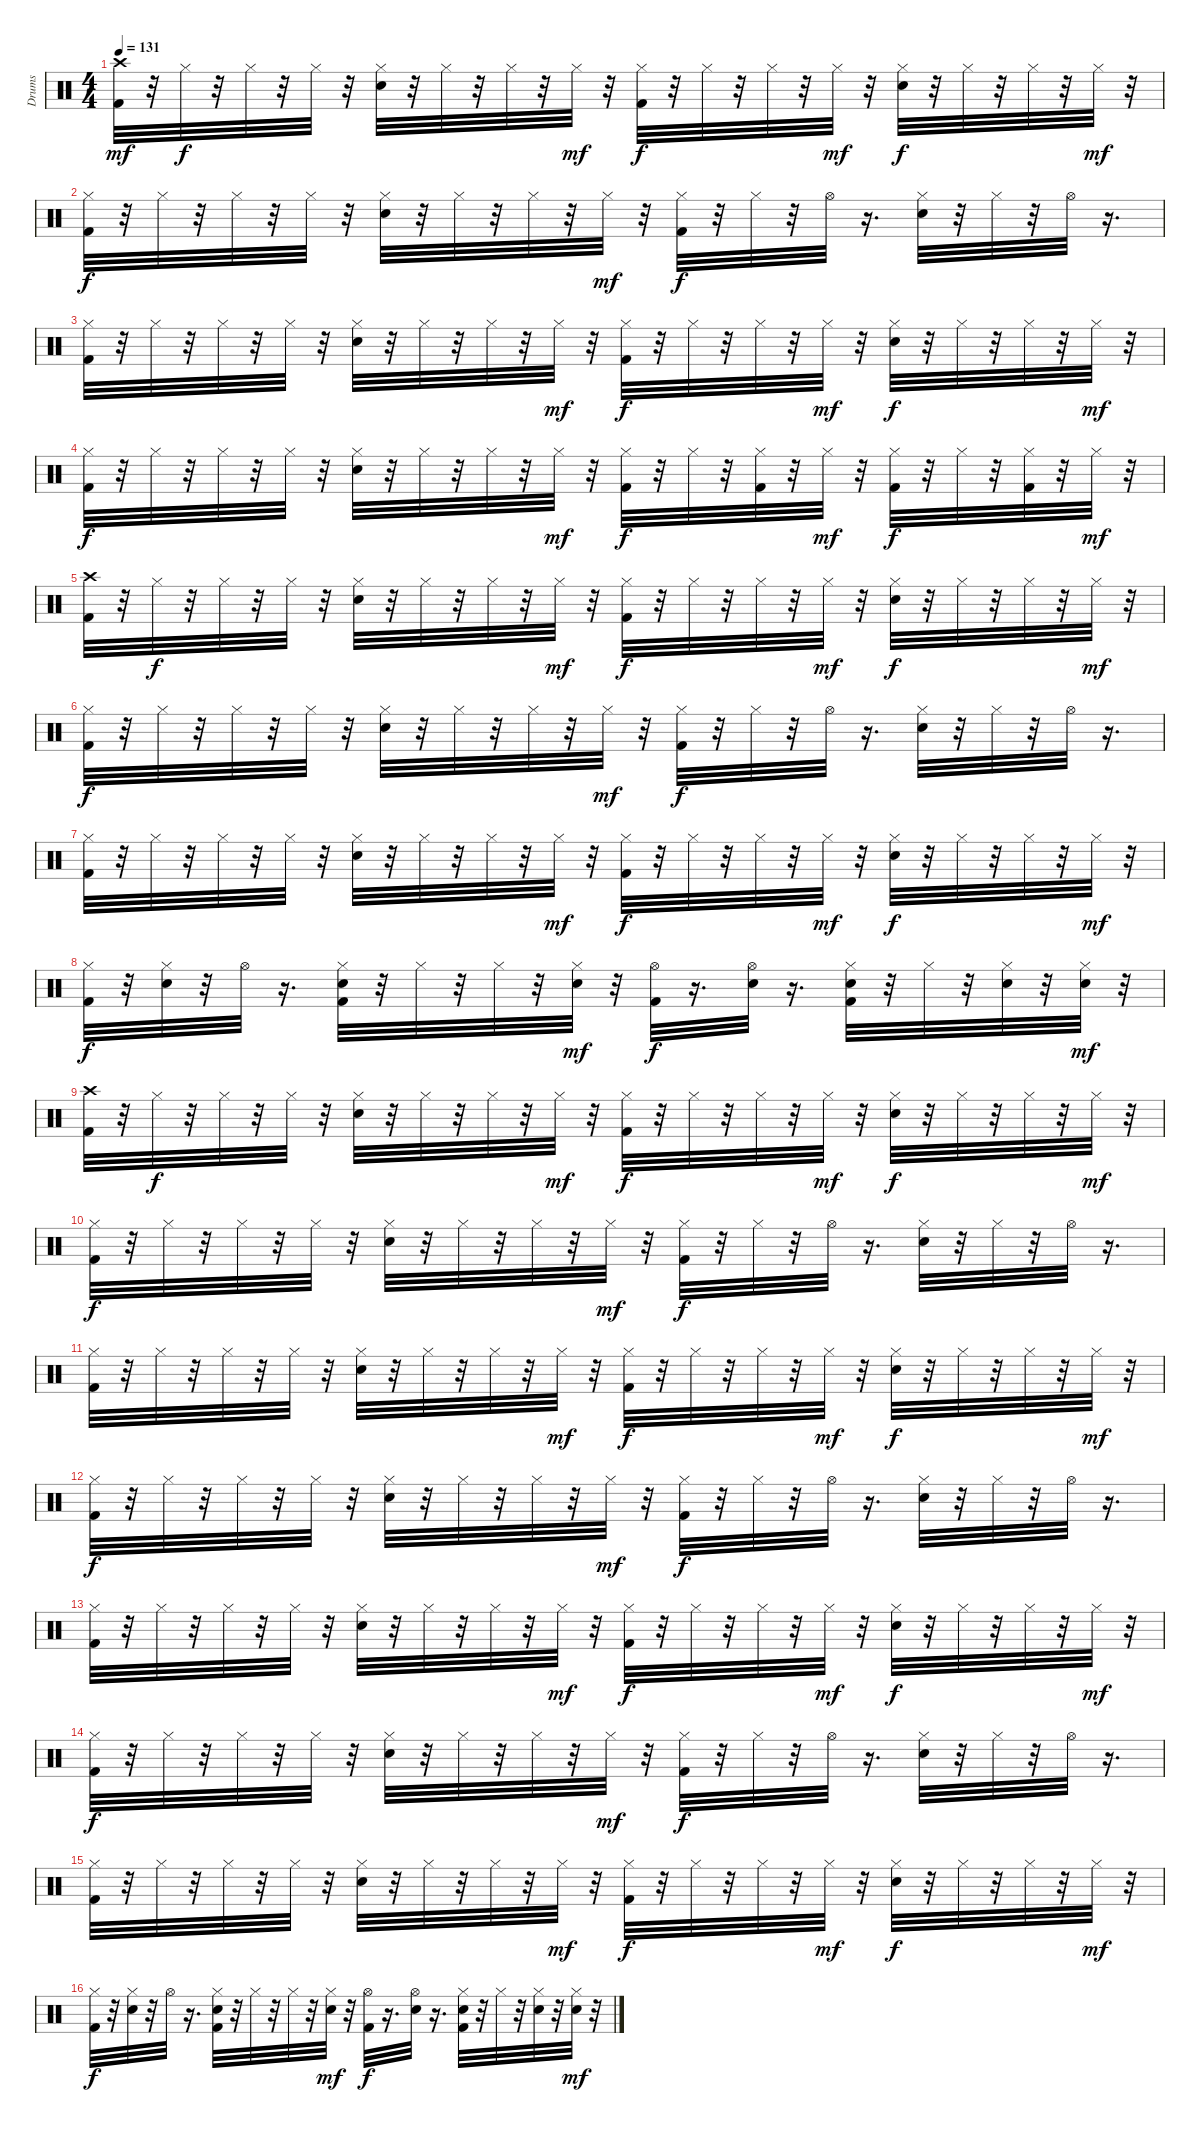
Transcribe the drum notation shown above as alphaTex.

\track ("Drums" "Drums") {instrument percussion}
\staff {score}
\articulation defaults
\ts (4 4)
\tempo 131
\clef neutral
\ks c
("Crash high (hit)" "Kick (hit) 2").32{dy mf} r.32 "Hi-Hat (closed)".32{dy f} r.32 "Hi-Hat (closed)".32 r.32 "Hi-Hat (closed)".32 r.32 ("Hi-Hat (closed)" "Snare (hit) 2").32 r.32 "Hi-Hat (closed)".32 r.32 "Hi-Hat (closed)".32 r.32 "Hi-Hat (closed)".32{dy mf} r.32 ("Hi-Hat (closed)" "Kick (hit) 2").32{dy f} r.32 "Hi-Hat (closed)".32 r.32 "Hi-Hat (closed)".32 r.32 "Hi-Hat (closed)".32{dy mf} r.32 ("Hi-Hat (closed)" "Snare (hit) 2").32{dy f} r.32 "Hi-Hat (closed)".32 r.32 "Hi-Hat (closed)".32 r.32 "Hi-Hat (closed)".32{dy mf} r.32 |
("Kick (hit) 2" "Hi-Hat (closed)").32{dy f} r.32 "Hi-Hat (closed)".32 r.32 "Hi-Hat (closed)".32 r.32 "Hi-Hat (closed)".32 r.32 ("Snare (hit) 2" "Hi-Hat (closed)").32 r.32 "Hi-Hat (closed)".32 r.32 "Hi-Hat (closed)".32 r.32 "Hi-Hat (closed)".32{dy mf} r.32 ("Kick (hit) 2" "Hi-Hat (closed)").32{dy f} r.32 "Hi-Hat (closed)".32 r.32 "Hi-Hat (open)".32 r.16{d} ("Snare (hit) 2" "Hi-Hat (closed)").32 r.32 "Hi-Hat (closed)".32 r.32 "Hi-Hat (open)".32 r.16{d} |
("Kick (hit) 2" "Hi-Hat (closed)").32 r.32 "Hi-Hat (closed)".32 r.32 "Hi-Hat (closed)".32 r.32 "Hi-Hat (closed)".32 r.32 ("Hi-Hat (closed)" "Snare (hit) 2").32 r.32 "Hi-Hat (closed)".32 r.32 "Hi-Hat (closed)".32 r.32 "Hi-Hat (closed)".32{dy mf} r.32 ("Hi-Hat (closed)" "Kick (hit) 2").32{dy f} r.32 "Hi-Hat (closed)".32 r.32 "Hi-Hat (closed)".32 r.32 "Hi-Hat (closed)".32{dy mf} r.32 ("Hi-Hat (closed)" "Snare (hit) 2").32{dy f} r.32 "Hi-Hat (closed)".32 r.32 "Hi-Hat (closed)".32 r.32 "Hi-Hat (closed)".32{dy mf} r.32 |
("Kick (hit) 2" "Hi-Hat (closed)").32{dy f} r.32 "Hi-Hat (closed)".32 r.32 "Hi-Hat (closed)".32 r.32 "Hi-Hat (closed)".32 r.32 ("Hi-Hat (closed)" "Snare (hit) 2").32 r.32 "Hi-Hat (closed)".32 r.32 "Hi-Hat (closed)".32 r.32 "Hi-Hat (closed)".32{dy mf} r.32 ("Hi-Hat (closed)" "Kick (hit) 2").32{dy f} r.32 "Hi-Hat (closed)".32 r.32 ("Kick (hit) 2" "Hi-Hat (closed)").32 r.32 "Hi-Hat (closed)".32{dy mf} r.32 ("Hi-Hat (closed)" "Kick (hit) 2").32{dy f} r.32 "Hi-Hat (closed)".32 r.32 ("Kick (hit) 2" "Hi-Hat (closed)").32 r.32 "Hi-Hat (closed)".32{dy mf} r.32 |
("Crash high (hit)" "Kick (hit) 2").32 r.32 "Hi-Hat (closed)".32{dy f} r.32 "Hi-Hat (closed)".32 r.32 "Hi-Hat (closed)".32 r.32 ("Hi-Hat (closed)" "Snare (hit) 2").32 r.32 "Hi-Hat (closed)".32 r.32 "Hi-Hat (closed)".32 r.32 "Hi-Hat (closed)".32{dy mf} r.32 ("Hi-Hat (closed)" "Kick (hit) 2").32{dy f} r.32 "Hi-Hat (closed)".32 r.32 "Hi-Hat (closed)".32 r.32 "Hi-Hat (closed)".32{dy mf} r.32 ("Hi-Hat (closed)" "Snare (hit) 2").32{dy f} r.32 "Hi-Hat (closed)".32 r.32 "Hi-Hat (closed)".32 r.32 "Hi-Hat (closed)".32{dy mf} r.32 |
("Kick (hit) 2" "Hi-Hat (closed)").32{dy f} r.32 "Hi-Hat (closed)".32 r.32 "Hi-Hat (closed)".32 r.32 "Hi-Hat (closed)".32 r.32 ("Snare (hit) 2" "Hi-Hat (closed)").32 r.32 "Hi-Hat (closed)".32 r.32 "Hi-Hat (closed)".32 r.32 "Hi-Hat (closed)".32{dy mf} r.32 ("Kick (hit) 2" "Hi-Hat (closed)").32{dy f} r.32 "Hi-Hat (closed)".32 r.32 "Hi-Hat (open)".32 r.16{d} ("Snare (hit) 2" "Hi-Hat (closed)").32 r.32 "Hi-Hat (closed)".32 r.32 "Hi-Hat (open)".32 r.16{d} |
("Kick (hit) 2" "Hi-Hat (closed)").32 r.32 "Hi-Hat (closed)".32 r.32 "Hi-Hat (closed)".32 r.32 "Hi-Hat (closed)".32 r.32 ("Hi-Hat (closed)" "Snare (hit) 2").32 r.32 "Hi-Hat (closed)".32 r.32 "Hi-Hat (closed)".32 r.32 "Hi-Hat (closed)".32{dy mf} r.32 ("Hi-Hat (closed)" "Kick (hit) 2").32{dy f} r.32 "Hi-Hat (closed)".32 r.32 "Hi-Hat (closed)".32 r.32 "Hi-Hat (closed)".32{dy mf} r.32 ("Hi-Hat (closed)" "Snare (hit) 2").32{dy f} r.32 "Hi-Hat (closed)".32 r.32 "Hi-Hat (closed)".32 r.32 "Hi-Hat (closed)".32{dy mf} r.32 |
("Kick (hit) 2" "Hi-Hat (closed)").32{dy f} r.32 ("Snare (hit) 2" "Hi-Hat (closed)").32 r.32 "Hi-Hat (open)".32 r.16{d} ("Kick (hit) 2" "Snare (hit) 2" "Hi-Hat (closed)").32 r.32 "Hi-Hat (closed)".32 r.32 "Hi-Hat (closed)".32 r.32 ("Snare (hit) 2" "Hi-Hat (closed)").32{dy mf} r.32 ("Hi-Hat (open)" "Kick (hit) 2").32{dy f} r.16{d} ("Snare (hit) 2" "Hi-Hat (open)").32 r.16{d} ("Snare (hit) 2" "Hi-Hat (closed)" "Kick (hit) 2").32 r.32 "Hi-Hat (closed)".32 r.32 ("Snare (hit) 2" "Hi-Hat (closed)").32 r.32 ("Snare (hit) 2" "Hi-Hat (closed)").32{dy mf} r.32 |
("Crash high (hit)" "Kick (hit) 2").32 r.32 "Hi-Hat (closed)".32{dy f} r.32 "Hi-Hat (closed)".32 r.32 "Hi-Hat (closed)".32 r.32 ("Hi-Hat (closed)" "Snare (hit) 2").32 r.32 "Hi-Hat (closed)".32 r.32 "Hi-Hat (closed)".32 r.32 "Hi-Hat (closed)".32{dy mf} r.32 ("Hi-Hat (closed)" "Kick (hit) 2").32{dy f} r.32 "Hi-Hat (closed)".32 r.32 "Hi-Hat (closed)".32 r.32 "Hi-Hat (closed)".32{dy mf} r.32 ("Hi-Hat (closed)" "Snare (hit) 2").32{dy f} r.32 "Hi-Hat (closed)".32 r.32 "Hi-Hat (closed)".32 r.32 "Hi-Hat (closed)".32{dy mf} r.32 |
("Kick (hit) 2" "Hi-Hat (closed)").32{dy f} r.32 "Hi-Hat (closed)".32 r.32 "Hi-Hat (closed)".32 r.32 "Hi-Hat (closed)".32 r.32 ("Snare (hit) 2" "Hi-Hat (closed)").32 r.32 "Hi-Hat (closed)".32 r.32 "Hi-Hat (closed)".32 r.32 "Hi-Hat (closed)".32{dy mf} r.32 ("Kick (hit) 2" "Hi-Hat (closed)").32{dy f} r.32 "Hi-Hat (closed)".32 r.32 "Hi-Hat (open)".32 r.16{d} ("Snare (hit) 2" "Hi-Hat (closed)").32 r.32 "Hi-Hat (closed)".32 r.32 "Hi-Hat (open)".32 r.16{d} |
("Kick (hit) 2" "Hi-Hat (closed)").32 r.32 "Hi-Hat (closed)".32 r.32 "Hi-Hat (closed)".32 r.32 "Hi-Hat (closed)".32 r.32 ("Hi-Hat (closed)" "Snare (hit) 2").32 r.32 "Hi-Hat (closed)".32 r.32 "Hi-Hat (closed)".32 r.32 "Hi-Hat (closed)".32{dy mf} r.32 ("Hi-Hat (closed)" "Kick (hit) 2").32{dy f} r.32 "Hi-Hat (closed)".32 r.32 "Hi-Hat (closed)".32 r.32 "Hi-Hat (closed)".32{dy mf} r.32 ("Hi-Hat (closed)" "Snare (hit) 2").32{dy f} r.32 "Hi-Hat (closed)".32 r.32 "Hi-Hat (closed)".32 r.32 "Hi-Hat (closed)".32{dy mf} r.32 |
("Kick (hit) 2" "Hi-Hat (closed)").32{dy f} r.32 "Hi-Hat (closed)".32 r.32 "Hi-Hat (closed)".32 r.32 "Hi-Hat (closed)".32 r.32 ("Snare (hit) 2" "Hi-Hat (closed)").32 r.32 "Hi-Hat (closed)".32 r.32 "Hi-Hat (closed)".32 r.32 "Hi-Hat (closed)".32{dy mf} r.32 ("Kick (hit) 2" "Hi-Hat (closed)").32{dy f} r.32 "Hi-Hat (closed)".32 r.32 "Hi-Hat (open)".32 r.16{d} ("Snare (hit) 2" "Hi-Hat (closed)").32 r.32 "Hi-Hat (closed)".32 r.32 "Hi-Hat (open)".32 r.16{d} |
("Kick (hit) 2" "Hi-Hat (closed)").32 r.32 "Hi-Hat (closed)".32 r.32 "Hi-Hat (closed)".32 r.32 "Hi-Hat (closed)".32 r.32 ("Hi-Hat (closed)" "Snare (hit) 2").32 r.32 "Hi-Hat (closed)".32 r.32 "Hi-Hat (closed)".32 r.32 "Hi-Hat (closed)".32{dy mf} r.32 ("Hi-Hat (closed)" "Kick (hit) 2").32{dy f} r.32 "Hi-Hat (closed)".32 r.32 "Hi-Hat (closed)".32 r.32 "Hi-Hat (closed)".32{dy mf} r.32 ("Hi-Hat (closed)" "Snare (hit) 2").32{dy f} r.32 "Hi-Hat (closed)".32 r.32 "Hi-Hat (closed)".32 r.32 "Hi-Hat (closed)".32{dy mf} r.32 |
("Kick (hit) 2" "Hi-Hat (closed)").32{dy f} r.32 "Hi-Hat (closed)".32 r.32 "Hi-Hat (closed)".32 r.32 "Hi-Hat (closed)".32 r.32 ("Snare (hit) 2" "Hi-Hat (closed)").32 r.32 "Hi-Hat (closed)".32 r.32 "Hi-Hat (closed)".32 r.32 "Hi-Hat (closed)".32{dy mf} r.32 ("Kick (hit) 2" "Hi-Hat (closed)").32{dy f} r.32 "Hi-Hat (closed)".32 r.32 "Hi-Hat (open)".32 r.16{d} ("Snare (hit) 2" "Hi-Hat (closed)").32 r.32 "Hi-Hat (closed)".32 r.32 "Hi-Hat (open)".32 r.16{d} |
("Kick (hit) 2" "Hi-Hat (closed)").32 r.32 "Hi-Hat (closed)".32 r.32 "Hi-Hat (closed)".32 r.32 "Hi-Hat (closed)".32 r.32 ("Hi-Hat (closed)" "Snare (hit) 2").32 r.32 "Hi-Hat (closed)".32 r.32 "Hi-Hat (closed)".32 r.32 "Hi-Hat (closed)".32{dy mf} r.32 ("Hi-Hat (closed)" "Kick (hit) 2").32{dy f} r.32 "Hi-Hat (closed)".32 r.32 "Hi-Hat (closed)".32 r.32 "Hi-Hat (closed)".32{dy mf} r.32 ("Hi-Hat (closed)" "Snare (hit) 2").32{dy f} r.32 "Hi-Hat (closed)".32 r.32 "Hi-Hat (closed)".32 r.32 "Hi-Hat (closed)".32{dy mf} r.32 |
("Kick (hit) 2" "Hi-Hat (closed)").32{dy f} r.32 ("Snare (hit) 2" "Hi-Hat (closed)").32 r.32 "Hi-Hat (open)".32 r.16{d} ("Kick (hit) 2" "Snare (hit) 2" "Hi-Hat (closed)").32 r.32 "Hi-Hat (closed)".32 r.32 "Hi-Hat (closed)".32 r.32 ("Snare (hit) 2" "Hi-Hat (closed)").32{dy mf} r.32 ("Hi-Hat (open)" "Kick (hit) 2").32{dy f} r.16{d} ("Snare (hit) 2" "Hi-Hat (open)").32 r.16{d} ("Snare (hit) 2" "Hi-Hat (closed)" "Kick (hit) 2").32 r.32 "Hi-Hat (closed)".32 r.32 ("Snare (hit) 2" "Hi-Hat (closed)").32 r.32 ("Snare (hit) 2" "Hi-Hat (closed)").32{dy mf} r.32
